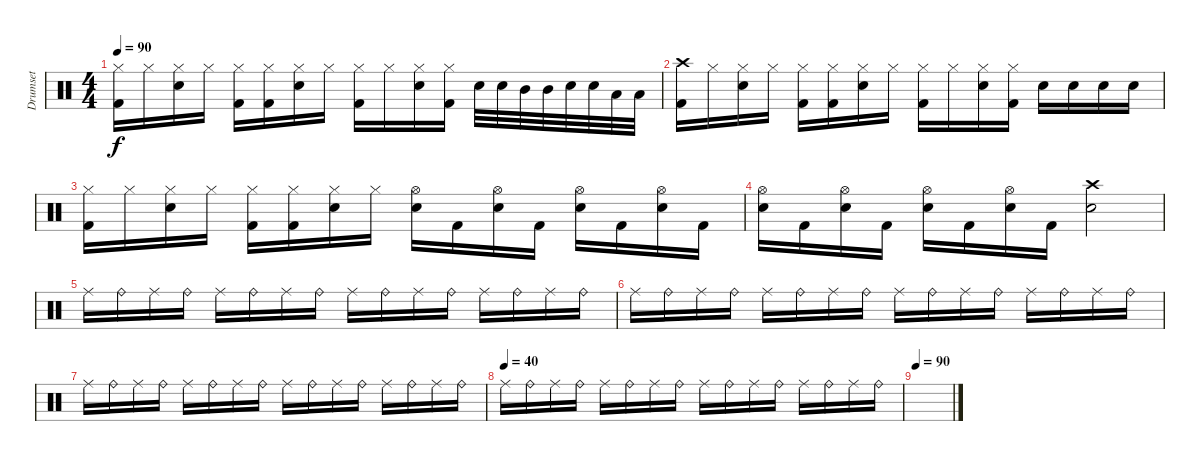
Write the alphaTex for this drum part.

\track ("Drumset" "Drumset") {instrument percussion}
\staff {score}
\articulation defaults
\ts (4 4)
\tempo 90
\clef neutral
\ks c
("Hi-Hat (closed)" "Kick (hit) 2").16{dy f} "Hi-Hat (closed)".16 ("Hi-Hat (closed)" "Electric Snare (hit)").16 "Hi-Hat (closed)".16 ("Hi-Hat (closed)" "Kick (hit) 2").16 ("Hi-Hat (closed)" "Kick (hit) 2").16 ("Hi-Hat (closed)" "Electric Snare (hit)").16 "Hi-Hat (closed)".16 ("Hi-Hat (closed)" "Kick (hit) 2").16 "Hi-Hat (closed)".16 ("Hi-Hat (closed)" "Electric Snare (hit)").16 ("Hi-Hat (closed)" "Kick (hit) 2").16 "Electric Snare (hit)".32 "Electric Snare (hit)".32 "Mid Tom (hit)".32 "Mid Tom (hit)".32 "Electric Snare (hit)".32 "Electric Snare (hit)".32 "Low Tom (hit)".32 "Low Tom (hit)".32 |
("Crash high (hit)" "Kick (hit) 2").16 "Hi-Hat (closed)".16 ("Hi-Hat (closed)" "Electric Snare (hit)").16 "Hi-Hat (closed)".16 ("Hi-Hat (closed)" "Kick (hit) 2").16 ("Hi-Hat (closed)" "Kick (hit) 2").16 ("Hi-Hat (closed)" "Electric Snare (hit)").16 "Hi-Hat (closed)".16 ("Hi-Hat (closed)" "Kick (hit) 2").16 "Hi-Hat (closed)".16 ("Hi-Hat (closed)" "Electric Snare (hit)").16 ("Hi-Hat (closed)" "Kick (hit) 2").16 "Electric Snare (hit)".16 "Electric Snare (hit)".16 "Electric Snare (hit)".16 "Electric Snare (hit)".16 |
("Hi-Hat (closed)" "Kick (hit) 2").16 "Hi-Hat (closed)".16 ("Hi-Hat (closed)" "Electric Snare (hit)").16 "Hi-Hat (closed)".16 ("Hi-Hat (closed)" "Kick (hit) 2").16 ("Hi-Hat (closed)" "Kick (hit) 2").16 ("Hi-Hat (closed)" "Electric Snare (hit)").16 "Hi-Hat (closed)".16 ("Hi-Hat (open)" "Electric Snare (hit)").16 "Kick (hit) 2".16 ("Hi-Hat (open)" "Electric Snare (hit)").16 "Kick (hit) 2".16 ("Hi-Hat (open)" "Electric Snare (hit)").16 "Kick (hit) 2".16 ("Hi-Hat (open)" "Electric Snare (hit)").16 "Kick (hit) 2".16 |
("Hi-Hat (open)" "Electric Snare (hit)").16 "Kick (hit) 2".16 ("Hi-Hat (open)" "Electric Snare (hit)").16 "Kick (hit) 2".16 ("Hi-Hat (open)" "Electric Snare (hit)").16 "Kick (hit) 2".16 ("Hi-Hat (open)" "Electric Snare (hit)").16 "Kick (hit) 2".16 ("Crash high (hit)" "Electric Snare (hit)").2 |
"Ride (middle)".16 "Ride (bell)".16 "Ride (middle)".16 "Ride (bell)".16 "Ride (middle)".16 "Ride (bell)".16 "Ride (middle)".16 "Ride (bell)".16 "Ride (middle)".16 "Ride (bell)".16 "Ride (middle)".16 "Ride (bell)".16 "Ride (middle)".16 "Ride (bell)".16 "Ride (middle)".16 "Ride (bell)".16 |
"Ride (middle)".16 "Ride (bell)".16 "Ride (middle)".16 "Ride (bell)".16 "Ride (middle)".16 "Ride (bell)".16 "Ride (middle)".16 "Ride (bell)".16 "Ride (middle)".16 "Ride (bell)".16 "Ride (middle)".16 "Ride (bell)".16 "Ride (middle)".16 "Ride (bell)".16 "Ride (middle)".16 "Ride (bell)".16 |
"Ride (middle)".16 "Ride (bell)".16 "Ride (middle)".16 "Ride (bell)".16 "Ride (middle)".16 "Ride (bell)".16 "Ride (middle)".16 "Ride (bell)".16 "Ride (middle)".16 "Ride (bell)".16 "Ride (middle)".16 "Ride (bell)".16 "Ride (middle)".16 "Ride (bell)".16 "Ride (middle)".16 "Ride (bell)".16 |
\tempo (40)
"Ride (middle)".16 "Ride (bell)".16 "Ride (middle)".16 "Ride (bell)".16 "Ride (middle)".16 "Ride (bell)".16 "Ride (middle)".16 "Ride (bell)".16 "Ride (middle)".16 "Ride (bell)".16 "Ride (middle)".16 "Ride (bell)".16 "Ride (middle)".16 "Ride (bell)".16 "Ride (middle)".16 "Ride (bell)".16 |
\tempo 90
